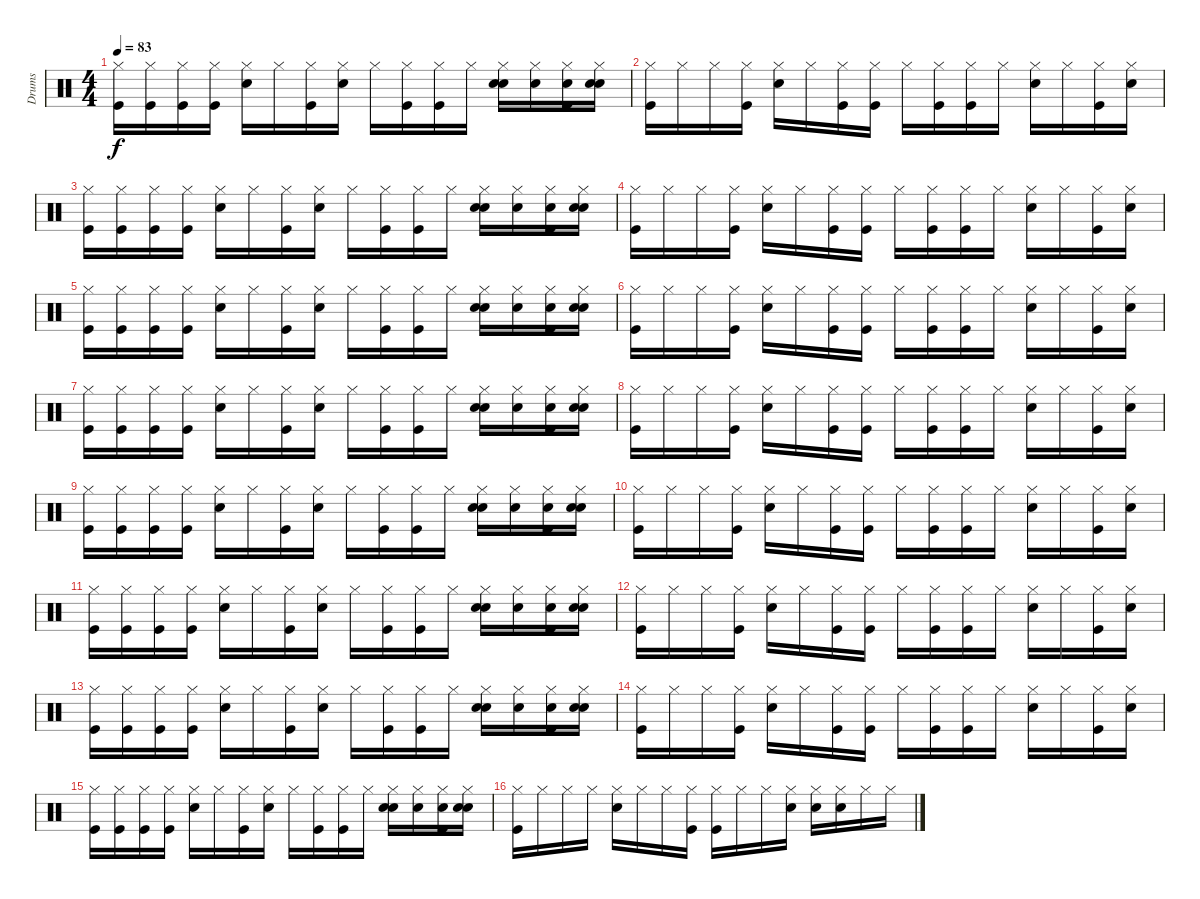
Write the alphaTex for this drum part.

\track ("Drums" "Drums") {instrument percussion}
\staff {score}
\articulation defaults
\ts (4 4)
\tempo 83
\clef neutral
\ks c
("Hi-Hat (closed)" "Kick (hit)").16{dy f} ("Hi-Hat (closed)" "Kick (hit)").16 ("Hi-Hat (closed)" "Kick (hit)").16 ("Hi-Hat (closed)" "Kick (hit)").16 ("Hi-Hat (closed)" "Snare (hit) 2").16 "Hi-Hat (closed)".16 ("Hi-Hat (closed)" "Kick (hit)").16 ("Hi-Hat (closed)" "Snare (hit) 2").16 "Hi-Hat (closed)".16 ("Hi-Hat (closed)" "Kick (hit)").16 ("Hi-Hat (closed)" "Kick (hit)").16 "Hi-Hat (closed)".16 ("Hand Clap (hit)" "Hi-Hat (closed)" "Snare (hit) 2").16 ("Hand Clap (hit)" "Hi-Hat (closed)").16 ("Hand Clap (hit)" "Hi-Hat (closed)" "Kick (hit)").16 ("Hand Clap (hit)" "Hi-Hat (closed)" "Snare (hit) 2").16 |
("Hi-Hat (closed)" "Kick (hit)").16 "Hi-Hat (closed)".16 "Hi-Hat (closed)".16 ("Hi-Hat (closed)" "Kick (hit)").16 ("Hi-Hat (closed)" "Snare (hit) 2").16 "Hi-Hat (closed)".16 ("Hi-Hat (closed)" "Kick (hit)").16 ("Hi-Hat (closed)" "Kick (hit)").16 "Hi-Hat (closed)".16 ("Hi-Hat (closed)" "Kick (hit)").16 ("Hi-Hat (closed)" "Kick (hit)").16 "Hi-Hat (closed)".16 ("Hi-Hat (closed)" "Snare (hit) 2").16 "Hi-Hat (closed)".16 ("Hi-Hat (closed)" "Kick (hit)").16 ("Hi-Hat (closed)" "Snare (hit) 2").16 |
("Hi-Hat (closed)" "Kick (hit)").16 ("Hi-Hat (closed)" "Kick (hit)").16 ("Hi-Hat (closed)" "Kick (hit)").16 ("Hi-Hat (closed)" "Kick (hit)").16 ("Hi-Hat (closed)" "Snare (hit) 2").16 "Hi-Hat (closed)".16 ("Hi-Hat (closed)" "Kick (hit)").16 ("Hi-Hat (closed)" "Snare (hit) 2").16 "Hi-Hat (closed)".16 ("Hi-Hat (closed)" "Kick (hit)").16 ("Hi-Hat (closed)" "Kick (hit)").16 "Hi-Hat (closed)".16 ("Hand Clap (hit)" "Hi-Hat (closed)" "Snare (hit) 2").16 ("Hand Clap (hit)" "Hi-Hat (closed)").16 ("Hand Clap (hit)" "Hi-Hat (closed)" "Kick (hit)").16 ("Hand Clap (hit)" "Hi-Hat (closed)" "Snare (hit) 2").16 |
("Hi-Hat (closed)" "Kick (hit)").16 "Hi-Hat (closed)".16 "Hi-Hat (closed)".16 ("Hi-Hat (closed)" "Kick (hit)").16 ("Hi-Hat (closed)" "Snare (hit) 2").16 "Hi-Hat (closed)".16 ("Hi-Hat (closed)" "Kick (hit)").16 ("Hi-Hat (closed)" "Kick (hit)").16 "Hi-Hat (closed)".16 ("Hi-Hat (closed)" "Kick (hit)").16 ("Hi-Hat (closed)" "Kick (hit)").16 "Hi-Hat (closed)".16 ("Hi-Hat (closed)" "Snare (hit) 2").16 "Hi-Hat (closed)".16 ("Hi-Hat (closed)" "Kick (hit)").16 ("Hi-Hat (closed)" "Snare (hit) 2").16 |
("Hi-Hat (closed)" "Kick (hit)").16 ("Hi-Hat (closed)" "Kick (hit)").16 ("Hi-Hat (closed)" "Kick (hit)").16 ("Hi-Hat (closed)" "Kick (hit)").16 ("Hi-Hat (closed)" "Snare (hit) 2").16 "Hi-Hat (closed)".16 ("Hi-Hat (closed)" "Kick (hit)").16 ("Hi-Hat (closed)" "Snare (hit) 2").16 "Hi-Hat (closed)".16 ("Hi-Hat (closed)" "Kick (hit)").16 ("Hi-Hat (closed)" "Kick (hit)").16 "Hi-Hat (closed)".16 ("Hand Clap (hit)" "Hi-Hat (closed)" "Snare (hit) 2").16 ("Hand Clap (hit)" "Hi-Hat (closed)").16 ("Hand Clap (hit)" "Hi-Hat (closed)" "Kick (hit)").16 ("Hand Clap (hit)" "Hi-Hat (closed)" "Snare (hit) 2").16 |
("Hi-Hat (closed)" "Kick (hit)").16 "Hi-Hat (closed)".16 "Hi-Hat (closed)".16 ("Hi-Hat (closed)" "Kick (hit)").16 ("Hi-Hat (closed)" "Snare (hit) 2").16 "Hi-Hat (closed)".16 ("Hi-Hat (closed)" "Kick (hit)").16 ("Hi-Hat (closed)" "Kick (hit)").16 "Hi-Hat (closed)".16 ("Hi-Hat (closed)" "Kick (hit)").16 ("Hi-Hat (closed)" "Kick (hit)").16 "Hi-Hat (closed)".16 ("Hi-Hat (closed)" "Snare (hit) 2").16 "Hi-Hat (closed)".16 ("Hi-Hat (closed)" "Kick (hit)").16 ("Hi-Hat (closed)" "Snare (hit) 2").16 |
("Hi-Hat (closed)" "Kick (hit)").16 ("Hi-Hat (closed)" "Kick (hit)").16 ("Hi-Hat (closed)" "Kick (hit)").16 ("Hi-Hat (closed)" "Kick (hit)").16 ("Hi-Hat (closed)" "Snare (hit) 2").16 "Hi-Hat (closed)".16 ("Hi-Hat (closed)" "Kick (hit)").16 ("Hi-Hat (closed)" "Snare (hit) 2").16 "Hi-Hat (closed)".16 ("Hi-Hat (closed)" "Kick (hit)").16 ("Hi-Hat (closed)" "Kick (hit)").16 "Hi-Hat (closed)".16 ("Hand Clap (hit)" "Hi-Hat (closed)" "Snare (hit) 2").16 ("Hand Clap (hit)" "Hi-Hat (closed)").16 ("Hand Clap (hit)" "Hi-Hat (closed)" "Kick (hit)").16 ("Hand Clap (hit)" "Hi-Hat (closed)" "Snare (hit) 2").16 |
("Hi-Hat (closed)" "Kick (hit)").16 "Hi-Hat (closed)".16 "Hi-Hat (closed)".16 ("Hi-Hat (closed)" "Kick (hit)").16 ("Hi-Hat (closed)" "Snare (hit) 2").16 "Hi-Hat (closed)".16 ("Hi-Hat (closed)" "Kick (hit)").16 ("Hi-Hat (closed)" "Kick (hit)").16 "Hi-Hat (closed)".16 ("Hi-Hat (closed)" "Kick (hit)").16 ("Hi-Hat (closed)" "Kick (hit)").16 "Hi-Hat (closed)".16 ("Hi-Hat (closed)" "Snare (hit) 2").16 "Hi-Hat (closed)".16 ("Hi-Hat (closed)" "Kick (hit)").16 ("Hi-Hat (closed)" "Snare (hit) 2").16 |
("Hi-Hat (closed)" "Kick (hit)").16 ("Hi-Hat (closed)" "Kick (hit)").16 ("Hi-Hat (closed)" "Kick (hit)").16 ("Hi-Hat (closed)" "Kick (hit)").16 ("Hi-Hat (closed)" "Snare (hit) 2").16 "Hi-Hat (closed)".16 ("Hi-Hat (closed)" "Kick (hit)").16 ("Hi-Hat (closed)" "Snare (hit) 2").16 "Hi-Hat (closed)".16 ("Hi-Hat (closed)" "Kick (hit)").16 ("Hi-Hat (closed)" "Kick (hit)").16 "Hi-Hat (closed)".16 ("Hand Clap (hit)" "Hi-Hat (closed)" "Snare (hit) 2").16 ("Hand Clap (hit)" "Hi-Hat (closed)").16 ("Hand Clap (hit)" "Hi-Hat (closed)" "Kick (hit)").16 ("Hand Clap (hit)" "Hi-Hat (closed)" "Snare (hit) 2").16 |
("Hi-Hat (closed)" "Kick (hit)").16 "Hi-Hat (closed)".16 "Hi-Hat (closed)".16 ("Hi-Hat (closed)" "Kick (hit)").16 ("Hi-Hat (closed)" "Snare (hit) 2").16 "Hi-Hat (closed)".16 ("Hi-Hat (closed)" "Kick (hit)").16 ("Hi-Hat (closed)" "Kick (hit)").16 "Hi-Hat (closed)".16 ("Hi-Hat (closed)" "Kick (hit)").16 ("Hi-Hat (closed)" "Kick (hit)").16 "Hi-Hat (closed)".16 ("Hi-Hat (closed)" "Snare (hit) 2").16 "Hi-Hat (closed)".16 ("Hi-Hat (closed)" "Kick (hit)").16 ("Hi-Hat (closed)" "Snare (hit) 2").16 |
("Hi-Hat (closed)" "Kick (hit)").16 ("Hi-Hat (closed)" "Kick (hit)").16 ("Hi-Hat (closed)" "Kick (hit)").16 ("Hi-Hat (closed)" "Kick (hit)").16 ("Hi-Hat (closed)" "Snare (hit) 2").16 "Hi-Hat (closed)".16 ("Hi-Hat (closed)" "Kick (hit)").16 ("Hi-Hat (closed)" "Snare (hit) 2").16 "Hi-Hat (closed)".16 ("Hi-Hat (closed)" "Kick (hit)").16 ("Hi-Hat (closed)" "Kick (hit)").16 "Hi-Hat (closed)".16 ("Hand Clap (hit)" "Hi-Hat (closed)" "Snare (hit) 2").16 ("Hand Clap (hit)" "Hi-Hat (closed)").16 ("Hand Clap (hit)" "Hi-Hat (closed)" "Kick (hit)").16 ("Hand Clap (hit)" "Hi-Hat (closed)" "Snare (hit) 2").16 |
("Hi-Hat (closed)" "Kick (hit)").16 "Hi-Hat (closed)".16 "Hi-Hat (closed)".16 ("Hi-Hat (closed)" "Kick (hit)").16 ("Hi-Hat (closed)" "Snare (hit) 2").16 "Hi-Hat (closed)".16 ("Hi-Hat (closed)" "Kick (hit)").16 ("Hi-Hat (closed)" "Kick (hit)").16 "Hi-Hat (closed)".16 ("Hi-Hat (closed)" "Kick (hit)").16 ("Hi-Hat (closed)" "Kick (hit)").16 "Hi-Hat (closed)".16 ("Hi-Hat (closed)" "Snare (hit) 2").16 "Hi-Hat (closed)".16 ("Hi-Hat (closed)" "Kick (hit)").16 ("Hi-Hat (closed)" "Snare (hit) 2").16 |
("Hi-Hat (closed)" "Kick (hit)").16 ("Hi-Hat (closed)" "Kick (hit)").16 ("Hi-Hat (closed)" "Kick (hit)").16 ("Hi-Hat (closed)" "Kick (hit)").16 ("Hi-Hat (closed)" "Snare (hit) 2").16 "Hi-Hat (closed)".16 ("Hi-Hat (closed)" "Kick (hit)").16 ("Hi-Hat (closed)" "Snare (hit) 2").16 "Hi-Hat (closed)".16 ("Hi-Hat (closed)" "Kick (hit)").16 ("Hi-Hat (closed)" "Kick (hit)").16 "Hi-Hat (closed)".16 ("Hand Clap (hit)" "Hi-Hat (closed)" "Snare (hit) 2").16 ("Hand Clap (hit)" "Hi-Hat (closed)").16 ("Hand Clap (hit)" "Hi-Hat (closed)" "Kick (hit)").16 ("Hand Clap (hit)" "Hi-Hat (closed)" "Snare (hit) 2").16 |
("Hi-Hat (closed)" "Kick (hit)").16 "Hi-Hat (closed)".16 "Hi-Hat (closed)".16 ("Hi-Hat (closed)" "Kick (hit)").16 ("Hi-Hat (closed)" "Snare (hit) 2").16 "Hi-Hat (closed)".16 ("Hi-Hat (closed)" "Kick (hit)").16 ("Hi-Hat (closed)" "Kick (hit)").16 "Hi-Hat (closed)".16 ("Hi-Hat (closed)" "Kick (hit)").16 ("Hi-Hat (closed)" "Kick (hit)").16 "Hi-Hat (closed)".16 ("Hi-Hat (closed)" "Snare (hit) 2").16 "Hi-Hat (closed)".16 ("Hi-Hat (closed)" "Kick (hit)").16 ("Hi-Hat (closed)" "Snare (hit) 2").16 |
("Hi-Hat (closed)" "Kick (hit)").16 ("Hi-Hat (closed)" "Kick (hit)").16 ("Hi-Hat (closed)" "Kick (hit)").16 ("Hi-Hat (closed)" "Kick (hit)").16 ("Hi-Hat (closed)" "Snare (hit) 2").16 "Hi-Hat (closed)".16 ("Hi-Hat (closed)" "Kick (hit)").16 ("Hi-Hat (closed)" "Snare (hit) 2").16 "Hi-Hat (closed)".16 ("Hi-Hat (closed)" "Kick (hit)").16 ("Hi-Hat (closed)" "Kick (hit)").16 "Hi-Hat (closed)".16 ("Hand Clap (hit)" "Hi-Hat (closed)" "Snare (hit) 2").16 ("Hand Clap (hit)" "Hi-Hat (closed)").16 ("Hand Clap (hit)" "Hi-Hat (closed)" "Kick (hit)").16 ("Hand Clap (hit)" "Hi-Hat (closed)" "Snare (hit) 2").16 |
("Hi-Hat (closed)" "Kick (hit)").16 "Hi-Hat (closed)".16 "Hi-Hat (closed)".16 "Hi-Hat (closed)".16 ("Hi-Hat (closed)" "Snare (hit) 2").16 "Hi-Hat (closed)".16 "Hi-Hat (closed)".16 ("Hi-Hat (closed)" "Kick (hit)").16 ("Hi-Hat (closed)" "Kick (hit)").16 "Hi-Hat (closed)".16 "Hi-Hat (closed)".16 ("Hand Clap (hit)" "Hi-Hat (closed)").16 ("Hi-Hat (closed)" "Snare (hit) 2").16 ("Hand Clap (hit)" "Hi-Hat (closed)").16 "Hi-Hat (closed)".16 "Hi-Hat (closed)".16
